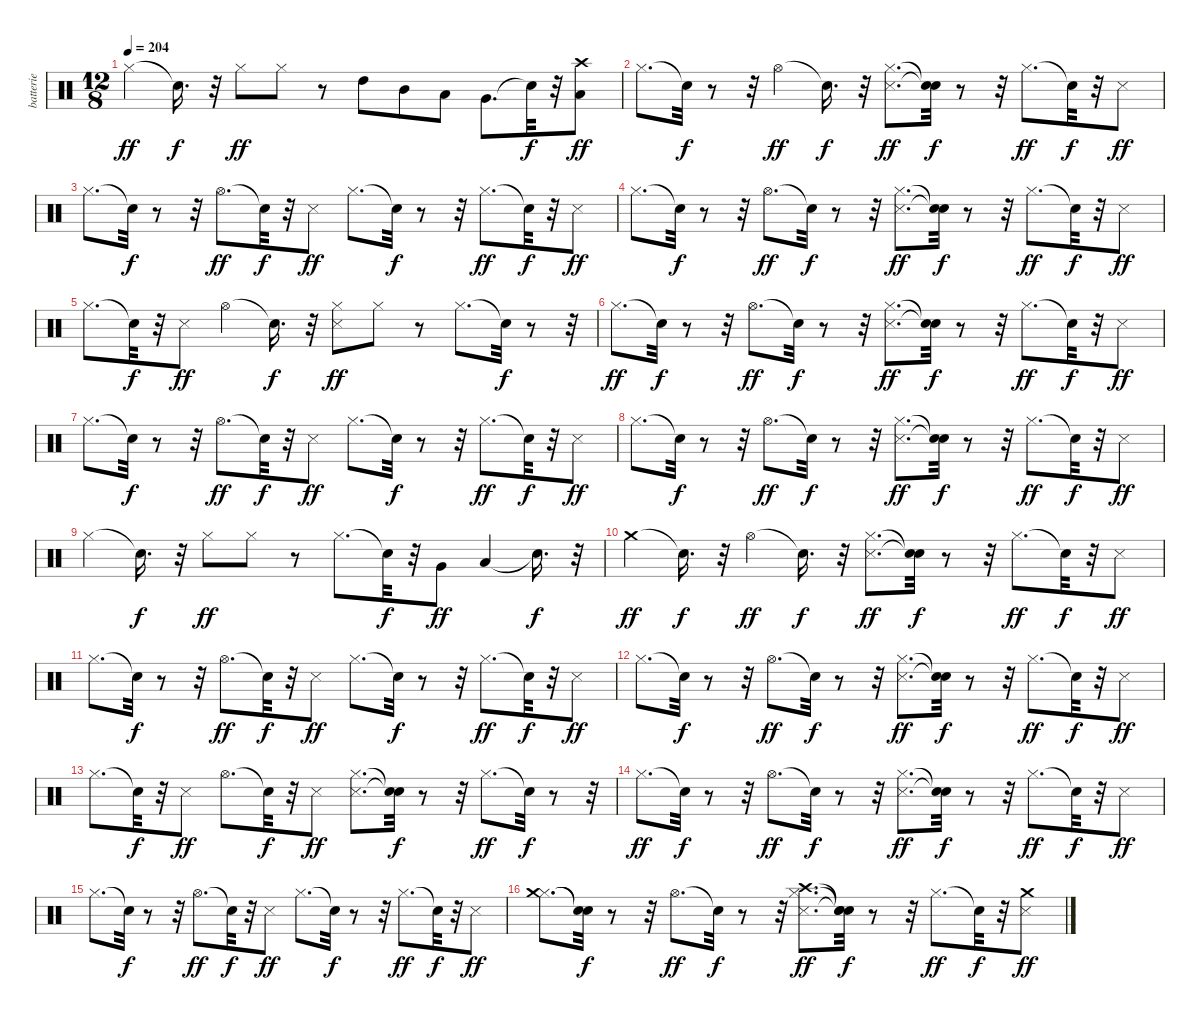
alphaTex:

\track ("batterie" "batterie") {instrument percussion}
\staff {score}
\articulation defaults
\ts (12 8)
\tempo 204
\clef neutral
\ks c "Hi-Hat (closed)".4{dy ff} "Snare (hit)"{t}.16{d dy f}
r.32 "Hi-Hat (closed)".8{dy ff} "Hi-Hat (closed)".8 r.8 "High Tom (hit)".8 "Mid Tom (hit)".8 "Low Tom (hit)".8 "Very Low Tom (hit)".8{d} "Snare (hit)"{t}.32{dy f} r.32 ("Low Floor Tom (hit)" "Crash high (hit)").8{dy ff} |
"Hi-Hat (closed)".8{d} "Snare (hit)"{t}.32{dy f} r.8 r.32 "Hi-Hat (open)".4{dy ff} "Snare (hit)"{t}.16{d dy f} r.32 ("Snare (side stick) 3" "Hi-Hat (closed)").8{d dy ff} ("Snare (hit)"{t} "Snare (hit)"{t}).32{dy f} r.8 r.32 "Hi-Hat (closed)".8{d dy ff} "Snare (hit)"{t}.32{dy f} r.32 "Snare (side stick) 3".8{dy ff} |
"Hi-Hat (closed)".8{d} "Snare (hit)"{t}.32{dy f} r.8 r.32 "Hi-Hat (open)".8{d dy ff} "Snare (hit)"{t}.32{dy f} r.32 "Snare (side stick) 3".8{dy ff} "Hi-Hat (closed)".8{d} "Snare (hit)"{t}.32{dy f} r.8 r.32 "Hi-Hat (closed)".8{d dy ff} "Snare (hit)"{t}.32{dy f} r.32 "Snare (side stick) 3".8{dy ff} |
"Hi-Hat (closed)".8{d} "Snare (hit)"{t}.32{dy f} r.8 r.32 "Hi-Hat (open)".8{d dy ff} "Snare (hit)"{t}.32{dy f} r.8 r.32 ("Snare (side stick) 3" "Hi-Hat (closed)").8{d dy ff} ("Snare (hit)"{t} "Snare (hit)"{t}).32{dy f} r.8 r.32 "Hi-Hat (closed)".8{d dy ff} "Snare (hit)"{t}.32{dy f} r.32 "Snare (side stick) 3".8{dy ff} |
"Hi-Hat (closed)".8{d} "Snare (hit)"{t}.32{dy f} r.32 "Snare (side stick) 3".8{dy ff} "Hi-Hat (open)".4 "Snare (hit)"{t}.16{d dy f} r.32 ("Snare (side stick) 3" "Hi-Hat (closed)").8{dy ff} "Hi-Hat (closed)".8 r.8 "Hi-Hat (closed)".8{d} "Snare (hit)"{t}.32{dy f} r.8 r.32 |
"Hi-Hat (closed)".8{d dy ff} "Snare (hit)"{t}.32{dy f} r.8 r.32 "Hi-Hat (open)".8{d dy ff} "Snare (hit)"{t}.32{dy f} r.8 r.32 ("Snare (side stick) 3" "Hi-Hat (closed)").8{d dy ff} ("Snare (hit)"{t} "Snare (hit)"{t}).32{dy f} r.8 r.32 "Hi-Hat (closed)".8{d dy ff} "Snare (hit)"{t}.32{dy f} r.32 "Snare (side stick) 3".8{dy ff} |
"Hi-Hat (closed)".8{d} "Snare (hit)"{t}.32{dy f} r.8 r.32 "Hi-Hat (open)".8{d dy ff} "Snare (hit)"{t}.32{dy f} r.32 "Snare (side stick) 3".8{dy ff} "Hi-Hat (closed)".8{d} "Snare (hit)"{t}.32{dy f} r.8 r.32 "Hi-Hat (closed)".8{d dy ff} "Snare (hit)"{t}.32{dy f} r.32 "Snare (side stick) 3".8{dy ff} |
"Hi-Hat (closed)".8{d} "Snare (hit)"{t}.32{dy f} r.8 r.32 "Hi-Hat (open)".8{d dy ff} "Snare (hit)"{t}.32{dy f} r.8 r.32 ("Snare (side stick) 3" "Hi-Hat (closed)").8{d dy ff} ("Snare (hit)"{t} "Snare (hit)"{t}).32{dy f} r.8 r.32 "Hi-Hat (closed)".8{d dy ff} "Snare (hit)"{t}.32{dy f} r.32 "Snare (side stick) 3".8{dy ff} |
"Hi-Hat (closed)".4 "Snare (hit)"{t}.16{d dy f} r.32 "Hi-Hat (closed)".8{dy ff} "Hi-Hat (closed)".8 r.8 "Hi-Hat (closed)".8{d} "Snare (hit)"{t}.32{dy f} r.32 "Very Low Tom (hit)".8{dy ff} "Low Floor Tom (hit)".4 "Snare (hit)"{t}.16{d dy f} r.32 |
"Crash medium (hit)".4{dy ff} "Snare (hit)"{t}.16{d dy f} r.32 "Hi-Hat (open)".4{dy ff} "Snare (hit)"{t}.16{d dy f} r.32 ("Snare (side stick) 3" "Hi-Hat (closed)").8{d dy ff} ("Snare (hit)"{t} "Snare (hit)"{t}).32{dy f} r.8 r.32 "Hi-Hat (closed)".8{d dy ff} "Snare (hit)"{t}.32{dy f} r.32 "Snare (side stick) 3".8{dy ff} |
"Hi-Hat (closed)".8{d} "Snare (hit)"{t}.32{dy f} r.8 r.32 "Hi-Hat (open)".8{d dy ff} "Snare (hit)"{t}.32{dy f} r.32 "Snare (side stick) 3".8{dy ff} "Hi-Hat (closed)".8{d} "Snare (hit)"{t}.32{dy f} r.8 r.32 "Hi-Hat (closed)".8{d dy ff} "Snare (hit)"{t}.32{dy f} r.32 "Snare (side stick) 3".8{dy ff} |
"Hi-Hat (closed)".8{d} "Snare (hit)"{t}.32{dy f} r.8 r.32 "Hi-Hat (open)".8{d dy ff} "Snare (hit)"{t}.32{dy f} r.8 r.32 ("Snare (side stick) 3" "Hi-Hat (closed)").8{d dy ff} ("Snare (hit)"{t} "Snare (hit)"{t}).32{dy f} r.8 r.32 "Hi-Hat (closed)".8{d dy ff} "Snare (hit)"{t}.32{dy f} r.32 "Snare (side stick) 3".8{dy ff} |
"Hi-Hat (closed)".8{d} "Snare (hit)"{t}.32{dy f} r.32 "Snare (side stick) 3".8{dy ff} "Hi-Hat (open)".8{d} "Snare (hit)"{t}.32{dy f} r.32 "Snare (side stick) 3".8{dy ff} ("Snare (side stick) 3" "Hi-Hat (closed)").8{d} ("Snare (hit)"{t} "Snare (hit)"{t}).32{dy f} r.8 r.32 "Hi-Hat (closed)".8{d dy ff} "Snare (hit)"{t}.32{dy f} r.8 r.32 |
"Hi-Hat (closed)".8{d dy ff} "Snare (hit)"{t}.32{dy f} r.8 r.32 "Hi-Hat (open)".8{d dy ff} "Snare (hit)"{t}.32{dy f} r.8 r.32 ("Snare (side stick) 3" "Hi-Hat (closed)").8{d dy ff} ("Snare (hit)"{t} "Snare (hit)"{t}).32{dy f} r.8 r.32 "Hi-Hat (closed)".8{d dy ff} "Snare (hit)"{t}.32{dy f} r.32 "Snare (side stick) 3".8{dy ff} |
"Hi-Hat (closed)".8{d} "Snare (hit)"{t}.32{dy f} r.8 r.32 "Hi-Hat (open)".8{d dy ff} "Snare (hit)"{t}.32{dy f} r.32 "Snare (side stick) 3".8{dy ff} "Hi-Hat (closed)".8{d} "Snare (hit)"{t}.32{dy f} r.8 r.32 "Hi-Hat (closed)".8{d dy ff} "Snare (hit)"{t}.32{dy f} r.32 "Snare (side stick) 3".8{dy ff} |
("Hi-Hat (closed)" "Crash medium (hit)").8{d} ("Snare (hit)"{t} "Snare (hit)"{t}).32{dy f} r.8 r.32 "Hi-Hat (open)".8{d dy ff} "Snare (hit)"{t}.32{dy f} r.8 r.32 ("Snare (side stick) 3" "Hi-Hat (closed)" "Crash high (hit)").8{d dy ff} ("Snare (hit)"{t} "Snare (hit)"{t} "Snare (hit)"{t}).32{dy f} r.8 r.32 "Hi-Hat (closed)".8{d dy ff} "Snare (hit)"{t}.32{dy f} r.32 ("Snare (side stick) 3" "Crash medium (hit)").8{dy ff}
